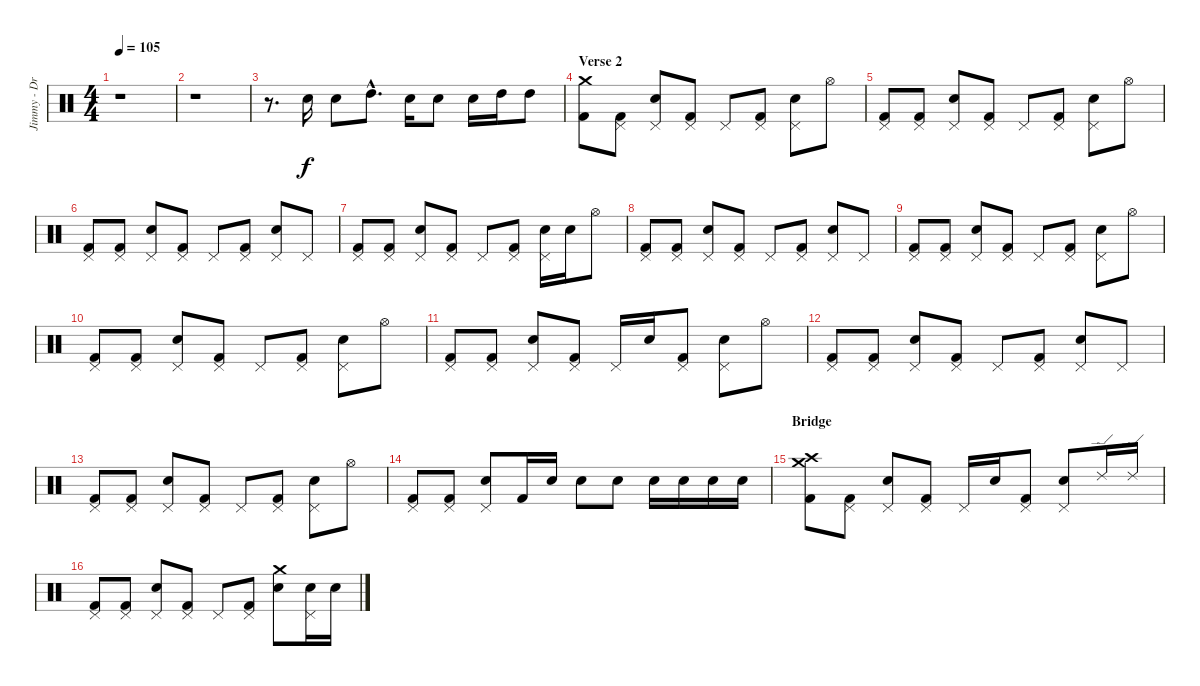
\track ("Jimmy - Drums" "Jimmy - Dr") {instrument percussion}
\staff {score}
\articulation defaults
\ts (4 4)
\tempo 105
\clef neutral
\ks c
r.1{dy f} |
r.1 |
r.8{d} "Electric Snare (hit)".16 "Electric Snare (hit)".8 "High Tom (hit)"{hac}.8{d} "Electric Snare (hit)".16 "Electric Snare (hit)".8 "Electric Snare (hit)".16 "High Tom (hit)".16 "High Tom (hit)".8 |
\section ("" "Verse 2")
("Crash medium (hit)" "Kick (hit) 2").8 ("Pedal Hi-Hat (hit)" "Kick (hit) 2").8 ("Pedal Hi-Hat (hit)" "Electric Snare (hit)").8 ("Pedal Hi-Hat (hit)" "Kick (hit) 2").8 "Pedal Hi-Hat (hit)".8 ("Pedal Hi-Hat (hit)" "Kick (hit) 2").8 ("Pedal Hi-Hat (hit)" "Electric Snare (hit)").8 "Hi-Hat (open)".8 |
("Pedal Hi-Hat (hit)" "Kick (hit) 2").8 ("Pedal Hi-Hat (hit)" "Kick (hit) 2").8 ("Pedal Hi-Hat (hit)" "Electric Snare (hit)").8 ("Pedal Hi-Hat (hit)" "Kick (hit) 2").8 "Pedal Hi-Hat (hit)".8 ("Pedal Hi-Hat (hit)" "Kick (hit) 2").8 ("Pedal Hi-Hat (hit)" "Electric Snare (hit)").8 "Hi-Hat (open)".8 |
("Pedal Hi-Hat (hit)" "Kick (hit) 2").8 ("Pedal Hi-Hat (hit)" "Kick (hit) 2").8 ("Pedal Hi-Hat (hit)" "Electric Snare (hit)").8 ("Pedal Hi-Hat (hit)" "Kick (hit) 2").8 "Pedal Hi-Hat (hit)".8 ("Pedal Hi-Hat (hit)" "Kick (hit) 2").8 ("Pedal Hi-Hat (hit)" "Electric Snare (hit)").8 "Pedal Hi-Hat (hit)".8 |
("Pedal Hi-Hat (hit)" "Kick (hit) 2").8 ("Pedal Hi-Hat (hit)" "Kick (hit) 2").8 ("Pedal Hi-Hat (hit)" "Electric Snare (hit)").8 ("Pedal Hi-Hat (hit)" "Kick (hit) 2").8 "Pedal Hi-Hat (hit)".8 ("Pedal Hi-Hat (hit)" "Kick (hit) 2").8 ("Pedal Hi-Hat (hit)" "Electric Snare (hit)").16 "Electric Snare (hit)".16 "Hi-Hat (open)".8 |
("Pedal Hi-Hat (hit)" "Kick (hit) 2").8 ("Pedal Hi-Hat (hit)" "Kick (hit) 2").8 ("Pedal Hi-Hat (hit)" "Electric Snare (hit)").8 ("Pedal Hi-Hat (hit)" "Kick (hit) 2").8 "Pedal Hi-Hat (hit)".8 ("Pedal Hi-Hat (hit)" "Kick (hit) 2").8 ("Pedal Hi-Hat (hit)" "Electric Snare (hit)").8 "Pedal Hi-Hat (hit)".8 |
("Pedal Hi-Hat (hit)" "Kick (hit) 2").8 ("Pedal Hi-Hat (hit)" "Kick (hit) 2").8 ("Pedal Hi-Hat (hit)" "Electric Snare (hit)").8 ("Pedal Hi-Hat (hit)" "Kick (hit) 2").8 "Pedal Hi-Hat (hit)".8 ("Pedal Hi-Hat (hit)" "Kick (hit) 2").8 ("Pedal Hi-Hat (hit)" "Electric Snare (hit)").8 "Hi-Hat (open)".8 |
("Pedal Hi-Hat (hit)" "Kick (hit) 2").8 ("Pedal Hi-Hat (hit)" "Kick (hit) 2").8 ("Pedal Hi-Hat (hit)" "Electric Snare (hit)").8 ("Pedal Hi-Hat (hit)" "Kick (hit) 2").8 "Pedal Hi-Hat (hit)".8 ("Pedal Hi-Hat (hit)" "Kick (hit) 2").8 ("Pedal Hi-Hat (hit)" "Electric Snare (hit)").8 "Hi-Hat (open)".8 |
("Pedal Hi-Hat (hit)" "Kick (hit) 2").8 ("Pedal Hi-Hat (hit)" "Kick (hit) 2").8 ("Pedal Hi-Hat (hit)" "Electric Snare (hit)").8 ("Pedal Hi-Hat (hit)" "Kick (hit) 2").8 "Pedal Hi-Hat (hit)".16 "Electric Snare (hit)".16 ("Pedal Hi-Hat (hit)" "Kick (hit) 2").8 ("Pedal Hi-Hat (hit)" "Electric Snare (hit)").8 "Hi-Hat (open)".8 |
("Pedal Hi-Hat (hit)" "Kick (hit) 2").8 ("Pedal Hi-Hat (hit)" "Kick (hit) 2").8 ("Pedal Hi-Hat (hit)" "Electric Snare (hit)").8 ("Pedal Hi-Hat (hit)" "Kick (hit) 2").8 "Pedal Hi-Hat (hit)".8 ("Pedal Hi-Hat (hit)" "Kick (hit) 2").8 ("Pedal Hi-Hat (hit)" "Electric Snare (hit)").8 "Pedal Hi-Hat (hit)".8 |
("Pedal Hi-Hat (hit)" "Kick (hit) 2").8 ("Pedal Hi-Hat (hit)" "Kick (hit) 2").8 ("Pedal Hi-Hat (hit)" "Electric Snare (hit)").8 ("Pedal Hi-Hat (hit)" "Kick (hit) 2").8 "Pedal Hi-Hat (hit)".8 ("Pedal Hi-Hat (hit)" "Kick (hit) 2").8 ("Pedal Hi-Hat (hit)" "Electric Snare (hit)").8 "Hi-Hat (open)".8 |
("Pedal Hi-Hat (hit)" "Kick (hit) 2").8 ("Pedal Hi-Hat (hit)" "Kick (hit) 2").8 ("Pedal Hi-Hat (hit)" "Electric Snare (hit)").8 "Kick (hit) 2".16 "Electric Snare (hit)".16 "Electric Snare (hit)".8 "Electric Snare (hit)".8 "Electric Snare (hit)".16 "Electric Snare (hit)".16 "Electric Snare (hit)".16 "Electric Snare (hit)".16 |
\section ("" "Bridge")
("Crash medium (hit)" "Crash high (hit)" "Kick (hit) 2").8 ("Pedal Hi-Hat (hit)" "Kick (hit) 2").8 ("Pedal Hi-Hat (hit)" "Electric Snare (hit)").8 ("Pedal Hi-Hat (hit)" "Kick (hit) 2").8 "Pedal Hi-Hat (hit)".16 "Electric Snare (hit)".16 ("Pedal Hi-Hat (hit)" "Kick (hit) 2").8 ("Pedal Hi-Hat (hit)" "Electric Snare (hit)").8 "Ride (edge) 2".16 "Ride (edge) 2".16 |
("Pedal Hi-Hat (hit)" "Kick (hit) 2").8 ("Pedal Hi-Hat (hit)" "Kick (hit) 2").8 ("Pedal Hi-Hat (hit)" "Electric Snare (hit)").8 ("Pedal Hi-Hat (hit)" "Kick (hit) 2").8 "Pedal Hi-Hat (hit)".8 ("Pedal Hi-Hat (hit)" "Kick (hit) 2").8 ("Crash medium (hit)" "Electric Snare (hit)").8 ("Pedal Hi-Hat (hit)" "Electric Snare (hit)").16 "Electric Snare (hit)".16
